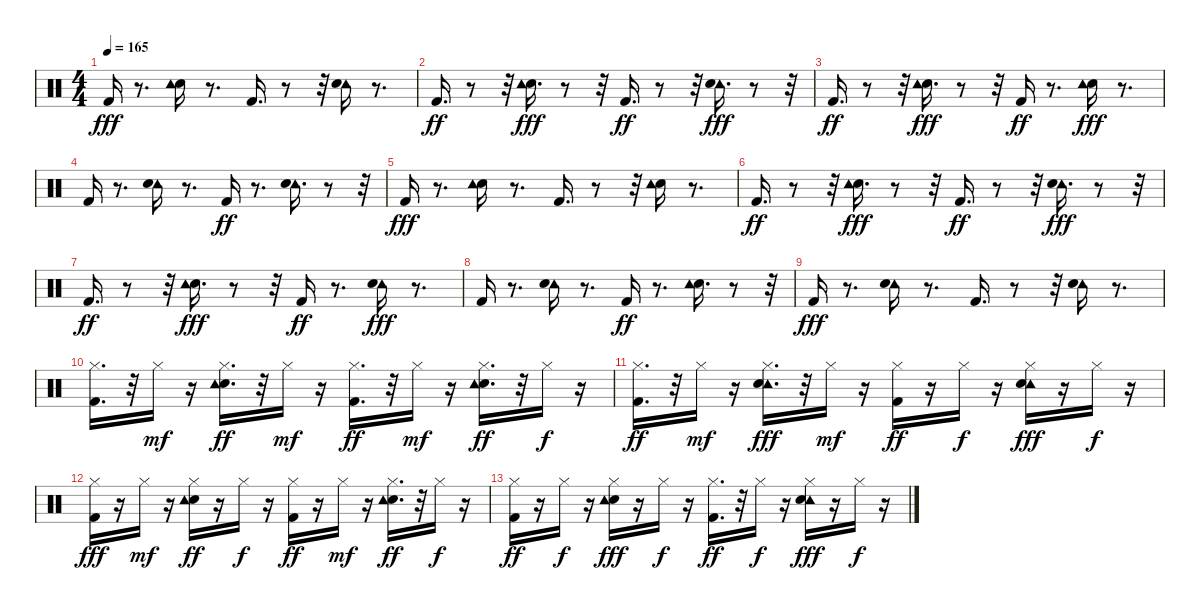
\track "" {solo instrument percussion}
\staff {score}
\articulation defaults
\ts (4 4)
\tempo 165
\clef neutral
\ks c "Kick (hit) 2".16{dy fff}
r.8{d} ("Electric Snare (hit)" "Tambourine (hit)").16 r.8{d} "Kick (hit) 2".16{d} r.8 r.32 ("Tambourine (hit)" "Electric Snare (hit)").16 r.8{d} |
"Kick (hit) 2".16{d dy ff} r.8 r.32 ("Electric Snare (hit)" "Tambourine (hit)").16{d dy fff} r.8 r.32 "Kick (hit) 2".16{d dy ff} r.8 r.32 ("Tambourine (hit)" "Electric Snare (hit)").16{d dy fff} r.8 r.32 |
"Kick (hit) 2".16{d dy ff} r.8 r.32 ("Electric Snare (hit)" "Tambourine (hit)").16{d dy fff} r.8 r.32 "Kick (hit) 2".16{dy ff} r.8{d} ("Electric Snare (hit)" "Tambourine (hit)").16{dy fff} r.8{d} |
"Kick (hit) 2".16 r.8{d} ("Tambourine (hit)" "Electric Snare (hit)").16 r.8{d} "Kick (hit) 2".16{dy ff} r.8{d} ("Tambourine (hit)" "Electric Snare (hit)").16{d} r.8 r.32 |
"Kick (hit) 2".16{dy fff} r.8{d} ("Electric Snare (hit)" "Tambourine (hit)").16 r.8{d} "Kick (hit) 2".16{d} r.8 r.32 ("Electric Snare (hit)" "Tambourine (hit)").16 r.8{d} |
"Kick (hit) 2".16{d dy ff} r.8 r.32 ("Electric Snare (hit)" "Tambourine (hit)").16{d dy fff} r.8 r.32 "Kick (hit) 2".16{d dy ff} r.8 r.32 ("Tambourine (hit)" "Electric Snare (hit)").16{d dy fff} r.8 r.32 |
"Kick (hit) 2".16{d dy ff} r.8 r.32 ("Electric Snare (hit)" "Tambourine (hit)").16{d dy fff} r.8 r.32 "Kick (hit) 2".16{dy ff} r.8{d} ("Tambourine (hit)" "Electric Snare (hit)").16{dy fff} r.8{d} |
"Kick (hit) 2".16 r.8{d} ("Tambourine (hit)" "Electric Snare (hit)").16 r.8{d} "Kick (hit) 2".16{dy ff} r.8{d} ("Electric Snare (hit)" "Tambourine (hit)").16{d} r.8 r.32 |
"Kick (hit) 2".16{dy fff} r.8{d} ("Tambourine (hit)" "Electric Snare (hit)").16 r.8{d} "Kick (hit) 2".16{d} r.8 r.32 ("Tambourine (hit)" "Electric Snare (hit)").16 r.8{d} |
("Kick (hit) 2" "Hi-Hat (closed)").16{d} r.32 "Hi-Hat (closed)".16{dy mf} r.16 ("Electric Snare (hit)" "Tambourine (hit)" "Hi-Hat (closed)").16{d dy ff} r.32 "Hi-Hat (closed)".16{dy mf} r.16 ("Kick (hit) 2" "Hi-Hat (closed)").16{d dy ff} r.32 "Hi-Hat (closed)".16{dy mf} r.16 ("Electric Snare (hit)" "Tambourine (hit)" "Hi-Hat (closed)").16{d dy ff} r.32 "Hi-Hat (closed)".16{dy f} r.16 |
("Kick (hit) 2" "Hi-Hat (closed)").16{d dy ff} r.32 "Hi-Hat (closed)".16{dy mf} r.16 ("Hi-Hat (closed)" "Tambourine (hit)" "Electric Snare (hit)").16{d dy fff} r.32 "Hi-Hat (closed)".16{dy mf} r.16 ("Hi-Hat (closed)" "Kick (hit) 2").16{dy ff} r.16 "Hi-Hat (closed)".16{dy f} r.16 ("Hi-Hat (closed)" "Tambourine (hit)" "Electric Snare (hit)").16{dy fff} r.16 "Hi-Hat (closed)".16{dy f} r.16 |
("Hi-Hat (closed)" "Kick (hit) 2").16{dy fff} r.16 "Hi-Hat (closed)".16{dy mf} r.16 ("Electric Snare (hit)" "Hi-Hat (closed)" "Tambourine (hit)").16{dy ff} r.16 "Hi-Hat (closed)".16{dy f} r.16 ("Hi-Hat (closed)" "Kick (hit) 2").16{dy ff} r.16 "Hi-Hat (closed)".16{dy mf} r.16 ("Electric Snare (hit)" "Hi-Hat (closed)" "Tambourine (hit)").16{d dy ff} r.32 "Hi-Hat (closed)".16{dy f} r.16 |
("Kick (hit) 2" "Hi-Hat (closed)").16{dy ff} r.16 "Hi-Hat (closed)".16{dy f} r.16 ("Hi-Hat (closed)" "Electric Snare (hit)" "Tambourine (hit)").16{dy fff} r.16 "Hi-Hat (closed)".16{dy f} r.16 ("Kick (hit) 2" "Hi-Hat (closed)").16{d dy ff} r.32 "Hi-Hat (closed)".16{dy f} r.16 ("Tambourine (hit)" "Hi-Hat (closed)" "Electric Snare (hit)").16{dy fff} r.16 "Hi-Hat (closed)".16{dy f} r.16
